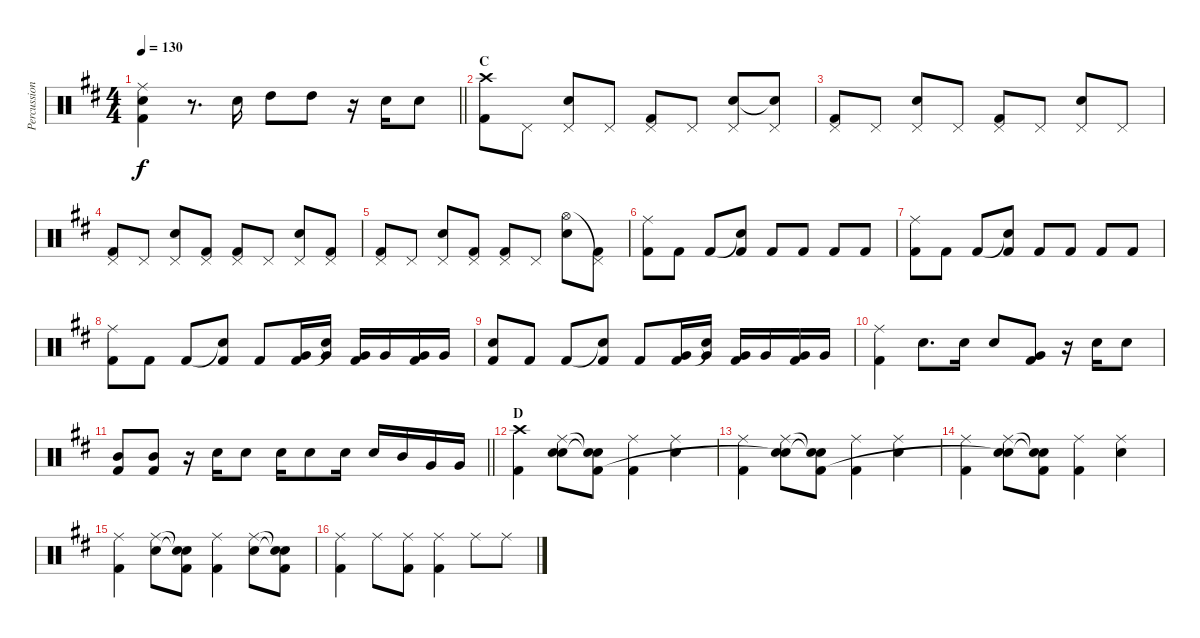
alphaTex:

\track ("Percussion" "Percussion") {instrument percussion}
\staff {score}
\articulation defaults
\ts (4 4)
\tempo 130
\clef neutral
\barLineRight lightlight
\ks d
("Ride (middle)" "Electric Snare (hit)" "Kick (hit) 2").4{dy f} r.8{d} "Electric Snare (hit)".16 "High Tom (hit)".8 "High Tom (hit)".8 r.16 "Electric Snare (hit)".16 "Electric Snare (hit)".8 |
\section ("" "C")
("Kick (hit) 2" "Crash high (hit)").8 "Pedal Hi-Hat (hit)".8 ("Pedal Hi-Hat (hit)" "Electric Snare (hit)").8 "Pedal Hi-Hat (hit)".8 ("Pedal Hi-Hat (hit)" "Kick (hit) 2").8 "Pedal Hi-Hat (hit)".8 ("Pedal Hi-Hat (hit)" "Electric Snare (hit)").8 ("Pedal Hi-Hat (hit)" "Snare (hit)"{t}).8 |
("Pedal Hi-Hat (hit)" "Kick (hit) 2").8 "Pedal Hi-Hat (hit)".8 ("Pedal Hi-Hat (hit)" "Electric Snare (hit)").8 "Pedal Hi-Hat (hit)".8 ("Pedal Hi-Hat (hit)" "Kick (hit) 2").8 "Pedal Hi-Hat (hit)".8 ("Pedal Hi-Hat (hit)" "Electric Snare (hit)").8 "Pedal Hi-Hat (hit)".8 |
("Pedal Hi-Hat (hit)" "Kick (hit) 2").8 "Pedal Hi-Hat (hit)".8 ("Pedal Hi-Hat (hit)" "Electric Snare (hit)").8 ("Pedal Hi-Hat (hit)" "Kick (hit) 2").8 ("Pedal Hi-Hat (hit)" "Kick (hit) 2").8 "Pedal Hi-Hat (hit)".8 ("Pedal Hi-Hat (hit)" "Electric Snare (hit)").8 ("Pedal Hi-Hat (hit)" "Kick (hit) 2").8 |
("Pedal Hi-Hat (hit)" "Kick (hit) 2").8 "Pedal Hi-Hat (hit)".8 ("Pedal Hi-Hat (hit)" "Electric Snare (hit)").8 ("Pedal Hi-Hat (hit)" "Kick (hit) 2").8 ("Pedal Hi-Hat (hit)" "Kick (hit) 2").8 "Pedal Hi-Hat (hit)".8 ("Hi-Hat (open)" "Electric Snare (hit)").8 ("Pedal Hi-Hat (hit)"{t} "Kick (hit) 2").8 |
("Ride (middle)" "Kick (hit) 2").8 "Kick (hit) 2".8 "Kick (hit) 2".8 ("Snare (hit)"{t} "Kick (hit) 2").8 "Kick (hit) 2".8 "Kick (hit) 2".8 "Kick (hit) 2".8 "Kick (hit) 2".8 |
("Ride (middle)" "Kick (hit) 2").8 "Kick (hit) 2".8 "Kick (hit) 2".8 ("Snare (hit)"{t} "Kick (hit) 2").8 "Kick (hit) 2".8 "Kick (hit) 2".8 "Kick (hit) 2".8 "Kick (hit) 2".8 |
("Ride (middle)" "Kick (hit) 2").8 "Kick (hit) 2".8 "Kick (hit) 2".8 ("Snare (hit)"{t} "Kick (hit) 2").8 "Kick (hit) 2".8 ("Very Low Tom (hit)" "Kick (hit) 2").16 ("Very Low Tom (hit)" "Snare (hit)"{t}).16 ("Very Low Tom (hit)" "Kick (hit) 2").16 "Very Low Tom (hit)".16 ("Very Low Tom (hit)" "Kick (hit) 2").16 "Very Low Tom (hit)".16 |
("Electric Snare (hit)" "Kick (hit) 2").8 "Kick (hit) 2".8 "Kick (hit) 2".8 ("Snare (hit)"{t} "Kick (hit) 2").8 "Kick (hit) 2".8 ("Very Low Tom (hit)" "Kick (hit) 2").16 ("Very Low Tom (hit)" "Snare (hit)"{t}).16 ("Very Low Tom (hit)" "Kick (hit) 2").16 "Very Low Tom (hit)".16 ("Very Low Tom (hit)" "Kick (hit) 2").16 "Very Low Tom (hit)".16 |
("Ride (middle)" "Kick (hit) 2").4 "Electric Snare (hit)".8{d} "Electric Snare (hit)".16 "Electric Snare (hit)".8 ("Very Low Tom (hit)" "Kick (hit) 2").8 r.16 "Electric Snare (hit)".16 "Electric Snare (hit)".8 |
\barLineRight lightlight
("Mid Tom (hit)" "Kick (hit) 2").8 ("Mid Tom (hit)" "Kick (hit) 2").8 r.16 "Electric Snare (hit)".16 "Electric Snare (hit)".8 "Electric Snare (hit)".16 "Electric Snare (hit)".8 "Electric Snare (hit)".16 "Electric Snare (hit)".16 "Mid Tom (hit)".16 "Very Low Tom (hit)".16 "Very Low Tom (hit)".16 |
\section ("" "D")
("Crash high (hit)" "Kick (hit) 2").4 ("Ride (middle)" "Electric Snare (hit)" "Snare (hit)").8 ("Snare (hit)"{t} "Snare (hit)"{t} "Kick (hit) 2").8 ("Ride (middle)" "Kick (hit) 2").4 ("Ride (middle)" "Electric Snare (hit)").4 |
("Ride (middle)" "Kick (hit) 2").4 ("Ride (middle)" "Electric Snare (hit)" "Snare (hit)"{t}).8 ("Snare (hit)"{t} "Snare (hit)"{t} "Kick (hit) 2").8 ("Ride (middle)" "Kick (hit) 2").4 ("Ride (middle)" "Electric Snare (hit)").4 |
("Ride (middle)" "Kick (hit) 2").4 ("Ride (middle)" "Electric Snare (hit)" "Snare (hit)"{t}).8 ("Snare (hit)"{t} "Snare (hit)"{t} "Kick (hit) 2").8 ("Ride (middle)" "Kick (hit) 2").4 ("Ride (middle)" "Electric Snare (hit)").4 |
("Ride (middle)" "Kick (hit) 2").4 ("Electric Snare (hit)" "Ride (middle)").8 ("Snare (hit)"{t} "Snare (hit)"{t} "Kick (hit) 2").8 ("Ride (middle)" "Kick (hit) 2").4 ("Electric Snare (hit)" "Ride (middle)").8 ("Snare (hit)"{t} "Snare (hit)"{t} "Kick (hit) 2").8 |
("Ride (middle)" "Kick (hit) 2").4 "Ride (middle)".8 ("Ride (middle)" "Kick (hit) 2").8 ("Ride (middle)" "Kick (hit) 2").4 "Ride (middle)".8 "Ride (middle)".8
